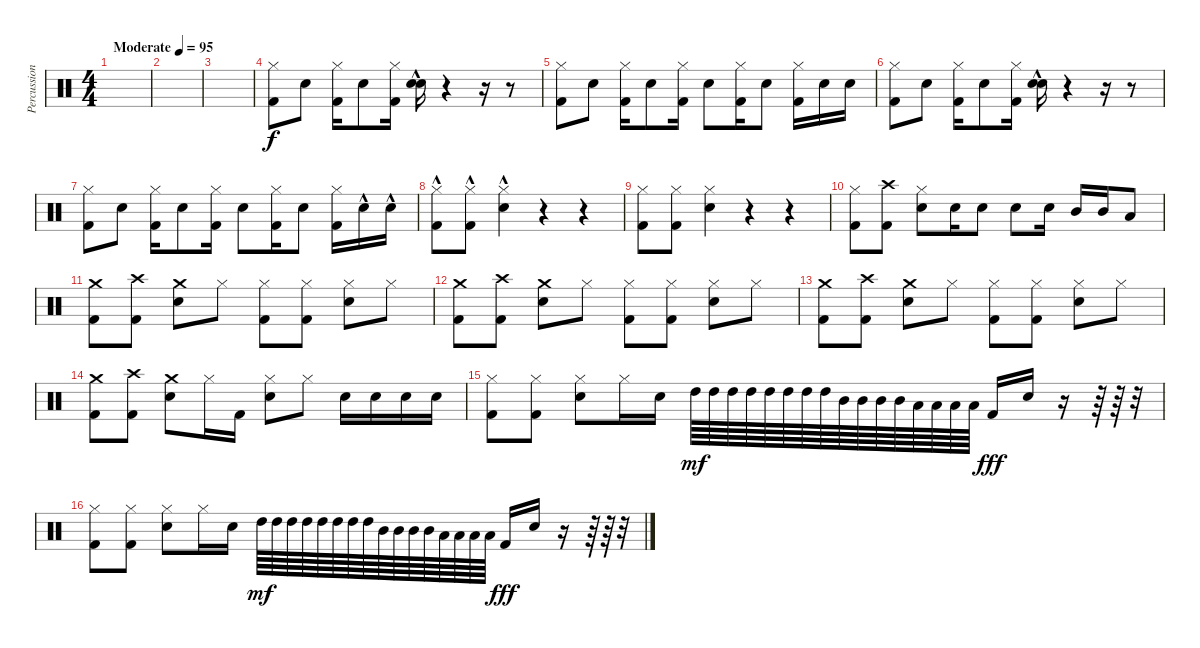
\track ("Percussion" "Percussion") {instrument percussion}
\staff {score}
\articulation defaults
\ts (4 4)
\tempo (95 "Moderate")
\clef neutral
\ks c
|
|
|
("Hi-Hat (closed)" "Kick (hit) 2").8 "Electric Snare (hit)".8 ("Hi-Hat (closed)" "Kick (hit) 2").16 "Electric Snare (hit)".8 ("Hi-Hat (closed)" "Kick (hit) 2").16 ("Electric Snare (hit)"{hac} "Electric Snare (hit)"{hac}).16 r.4 r.16 r.8 |
("Hi-Hat (closed)" "Kick (hit) 2").8 "Electric Snare (hit)".8 ("Hi-Hat (closed)" "Kick (hit) 2").16 "Electric Snare (hit)".8 ("Hi-Hat (closed)" "Kick (hit) 2").16 "Electric Snare (hit)".8 ("Hi-Hat (closed)" "Kick (hit) 2").16 "Electric Snare (hit)".8 ("Hi-Hat (closed)" "Kick (hit) 2").16 "Electric Snare (hit)".16 "Electric Snare (hit)".16 |
("Hi-Hat (closed)" "Kick (hit) 2").8 "Electric Snare (hit)".8 ("Hi-Hat (closed)" "Kick (hit) 2").16 "Electric Snare (hit)".8 ("Hi-Hat (closed)" "Kick (hit) 2").16 ("Electric Snare (hit)"{hac} "Electric Snare (hit)"{hac}).16 r.4 r.16 r.8 |
("Hi-Hat (closed)" "Kick (hit) 2").8 "Electric Snare (hit)".8 ("Hi-Hat (closed)" "Kick (hit) 2").16 "Electric Snare (hit)".8 ("Hi-Hat (closed)" "Kick (hit) 2").16 "Electric Snare (hit)".8 ("Hi-Hat (closed)" "Kick (hit) 2").16 "Electric Snare (hit)".8 ("Hi-Hat (closed)" "Kick (hit) 2").16 "Electric Snare (hit)"{hac}.16 "Electric Snare (hit)"{hac}.16 |
("Hi-Hat (closed)" "Kick (hit) 2"{hac}).8 ("Hi-Hat (closed)" "Kick (hit) 2"{hac}).8 ("Hi-Hat (closed)" "Electric Snare (hit)"{hac}).4 r.4 r.4 |
("Hi-Hat (closed)" "Kick (hit) 2").8 ("Hi-Hat (closed)" "Kick (hit) 2").8 ("Hi-Hat (closed)" "Electric Snare (hit)").4 r.4 r.4 |
("Hi-Hat (closed)" "Kick (hit) 2").8 ("Crash high (hit)" "Kick (hit) 2").8 ("Hi-Hat (closed)" "Electric Snare (hit)").8 "Electric Snare (hit)".16 "Electric Snare (hit)".8 "Electric Snare (hit)".8 "Electric Snare (hit)".16 "Mid Tom (hit)".16 "Mid Tom (hit)".16 "Low Tom (hit)".8 |
("Crash medium (hit)" "Kick (hit) 2").8 ("Crash high (hit)" "Kick (hit) 2").8 ("Crash medium (hit)" "Electric Snare (hit)").8 "Hi-Hat (closed)".8 ("Hi-Hat (closed)" "Kick (hit) 2").8 ("Hi-Hat (closed)" "Kick (hit) 2").8 ("Hi-Hat (closed)" "Electric Snare (hit)").8 "Hi-Hat (closed)".8 |
("Crash medium (hit)" "Kick (hit) 2").8 ("Crash high (hit)" "Kick (hit) 2").8 ("Crash medium (hit)" "Electric Snare (hit)").8 "Hi-Hat (closed)".8 ("Hi-Hat (closed)" "Kick (hit) 2").8 ("Hi-Hat (closed)" "Kick (hit) 2").8 ("Hi-Hat (closed)" "Electric Snare (hit)").8 "Hi-Hat (closed)".8 |
("Crash medium (hit)" "Kick (hit) 2").8 ("Crash high (hit)" "Kick (hit) 2").8 ("Crash medium (hit)" "Electric Snare (hit)").8 "Hi-Hat (closed)".8 ("Hi-Hat (closed)" "Kick (hit) 2").8 ("Hi-Hat (closed)" "Kick (hit) 2").8 ("Hi-Hat (closed)" "Electric Snare (hit)").8 "Hi-Hat (closed)".8 |
("Crash medium (hit)" "Kick (hit) 2").8 ("Crash high (hit)" "Kick (hit) 2").8 ("Crash medium (hit)" "Electric Snare (hit)").8 "Hi-Hat (closed)".16 "Kick (hit) 2".16 ("Hi-Hat (closed)" "Electric Snare (hit)").8 "Hi-Hat (closed)".8 "Electric Snare (hit)".16 "Electric Snare (hit)".16 "Electric Snare (hit)".16 "Electric Snare (hit)".16 |
("Hi-Hat (closed)" "Kick (hit) 2").8 ("Hi-Hat (closed)" "Kick (hit) 2").8 ("Hi-Hat (closed)" "Electric Snare (hit)").8 "Hi-Hat (closed)".16 "Electric Snare (hit)".16 "High Tom (hit)".64{dy mf} "High Tom (hit)".64 "High Tom (hit)".64 "High Tom (hit)".64 "High Tom (hit)".64 "High Tom (hit)".64 "High Tom (hit)".64 "High Tom (hit)".64 "Mid Tom (hit)".64 "Mid Tom (hit)".64 "Mid Tom (hit)".64 "Mid Tom (hit)".64 "Low Tom (hit)".64 "Low Tom (hit)".64 "Low Tom (hit)".64 "Low Tom (hit)".64 "Kick (hit) 2".16{dy fff} "Snare (hit) 2".16 r.16 r.64 r.64 r.32 |
("Hi-Hat (closed)" "Kick (hit) 2").8 ("Hi-Hat (closed)" "Kick (hit) 2").8 ("Hi-Hat (closed)" "Electric Snare (hit)").8 "Hi-Hat (closed)".16 "Electric Snare (hit)".16 "High Tom (hit)".64{dy mf} "High Tom (hit)".64 "High Tom (hit)".64 "High Tom (hit)".64 "High Tom (hit)".64 "High Tom (hit)".64 "High Tom (hit)".64 "High Tom (hit)".64 "Mid Tom (hit)".64 "Mid Tom (hit)".64 "Mid Tom (hit)".64 "Mid Tom (hit)".64 "Low Tom (hit)".64 "Low Tom (hit)".64 "Low Tom (hit)".64 "Low Tom (hit)".64 "Kick (hit) 2".16{dy fff} "Snare (hit) 2".16 r.16 r.64 r.64 r.32
